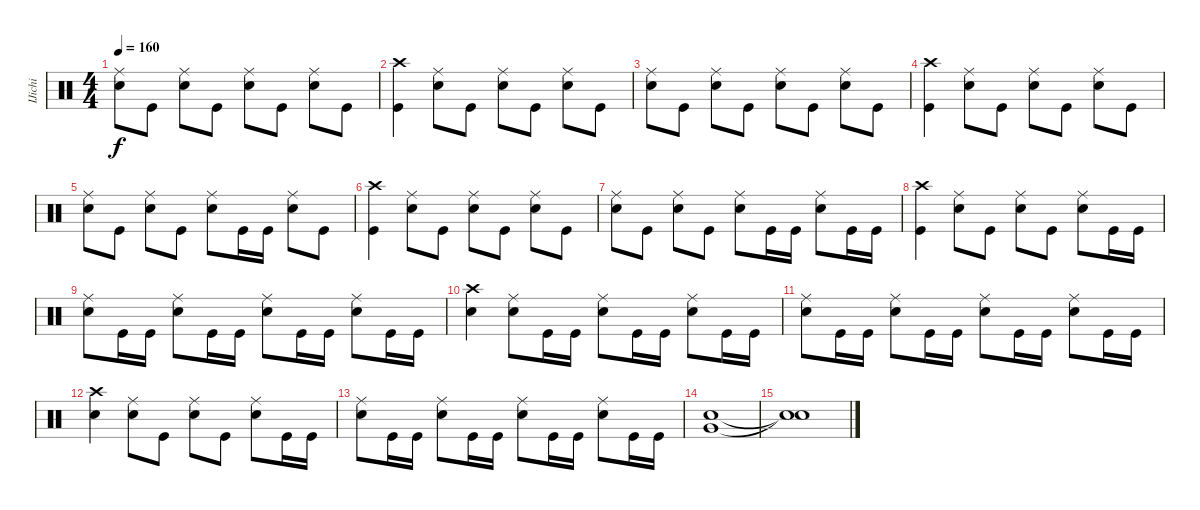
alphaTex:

\track ("IJichi" "IJichi") {instrument percussion}
\staff {score}
\articulation defaults
\ts (4 4)
\tempo 160
\clef neutral
\ks c
("Ride (middle)" "Snare (hit) 2").8{dy f} "Kick (hit)".8 ("Ride (middle)" "Snare (hit) 2").8 "Kick (hit)".8 ("Ride (middle)" "Snare (hit) 2").8 "Kick (hit)".8 ("Ride (middle)" "Snare (hit) 2").8 "Kick (hit)".8 |
("Crash high (hit)" "Kick (hit)").4 ("Ride (middle)" "Snare (hit) 2").8 "Kick (hit)".8 ("Ride (middle)" "Snare (hit) 2").8 "Kick (hit)".8 ("Ride (middle)" "Snare (hit) 2").8 "Kick (hit)".8 |
("Ride (middle)" "Snare (hit) 2").8 "Kick (hit)".8 ("Ride (middle)" "Snare (hit) 2").8 "Kick (hit)".8 ("Ride (middle)" "Snare (hit) 2").8 "Kick (hit)".8 ("Ride (middle)" "Snare (hit) 2").8 "Kick (hit)".8 |
("Crash high (hit)" "Kick (hit)").4 ("Ride (middle)" "Snare (hit) 2").8 "Kick (hit)".8 ("Ride (middle)" "Snare (hit) 2").8 "Kick (hit)".8 ("Ride (middle)" "Snare (hit) 2").8 "Kick (hit)".8 |
("Ride (middle)" "Snare (hit) 2").8 "Kick (hit)".8 ("Ride (middle)" "Snare (hit) 2").8 "Kick (hit)".8 ("Ride (middle)" "Snare (hit) 2").8 "Kick (hit)".16 "Kick (hit)".16 ("Ride (middle)" "Snare (hit) 2").8 "Kick (hit)".8 |
("Crash high (hit)" "Kick (hit)").4 ("Ride (middle)" "Snare (hit) 2").8 "Kick (hit)".8 ("Ride (middle)" "Snare (hit) 2").8 "Kick (hit)".8 ("Ride (middle)" "Snare (hit) 2").8 "Kick (hit)".8 |
("Ride (middle)" "Snare (hit) 2").8 "Kick (hit)".8 ("Ride (middle)" "Snare (hit) 2").8 "Kick (hit)".8 ("Ride (middle)" "Snare (hit) 2").8 "Kick (hit)".16 "Kick (hit)".16 ("Ride (middle)" "Snare (hit) 2").8 "Kick (hit)".16 "Kick (hit)".16 |
("Crash high (hit)" "Kick (hit)").4 ("Ride (middle)" "Snare (hit) 2").8 "Kick (hit)".8 ("Ride (middle)" "Snare (hit) 2").8 "Kick (hit)".8 ("Ride (middle)" "Snare (hit) 2").8 "Kick (hit)".16 "Kick (hit)".16 |
("Ride (middle)" "Snare (hit) 2").8 "Kick (hit)".16 "Kick (hit)".16 ("Ride (middle)" "Snare (hit) 2").8 "Kick (hit)".16 "Kick (hit)".16 ("Ride (middle)" "Snare (hit) 2").8 "Kick (hit)".16 "Kick (hit)".16 ("Ride (middle)" "Snare (hit) 2").8 "Kick (hit)".16 "Kick (hit)".16 |
("Crash high (hit)" "Snare (hit) 2").4 ("Ride (middle)" "Snare (hit) 2").8 "Kick (hit)".16 "Kick (hit)".16 ("Ride (middle)" "Snare (hit) 2").8 "Kick (hit)".16 "Kick (hit)".16 ("Ride (middle)" "Snare (hit) 2").8 "Kick (hit)".16 "Kick (hit)".16 |
("Ride (middle)" "Snare (hit) 2").8 "Kick (hit)".16 "Kick (hit)".16 ("Ride (middle)" "Snare (hit) 2").8 "Kick (hit)".16 "Kick (hit)".16 ("Ride (middle)" "Snare (hit) 2").8 "Kick (hit)".16 "Kick (hit)".16 ("Ride (middle)" "Snare (hit) 2").8 "Kick (hit)".16 "Kick (hit)".16 |
("Crash high (hit)" "Snare (hit) 2").4 ("Ride (middle)" "Snare (hit) 2").8 "Kick (hit)".8 ("Ride (middle)" "Snare (hit) 2").8 "Kick (hit)".8 ("Ride (middle)" "Snare (hit) 2").8 "Kick (hit)".16 "Kick (hit)".16 |
("Ride (middle)" "Snare (hit) 2").8 "Kick (hit)".16 "Kick (hit)".16 ("Ride (middle)" "Snare (hit) 2").8 "Kick (hit)".16 "Kick (hit)".16 ("Ride (middle)" "Snare (hit) 2").8 "Kick (hit)".16 "Kick (hit)".16 ("Ride (middle)" "Snare (hit) 2").8 "Kick (hit)".16 "Kick (hit)".16 |
("Snare (hit) 2" "Very Low Tom (hit)").1 |
("Snare (hit)"{t} "Snare (hit)"{t}).1
